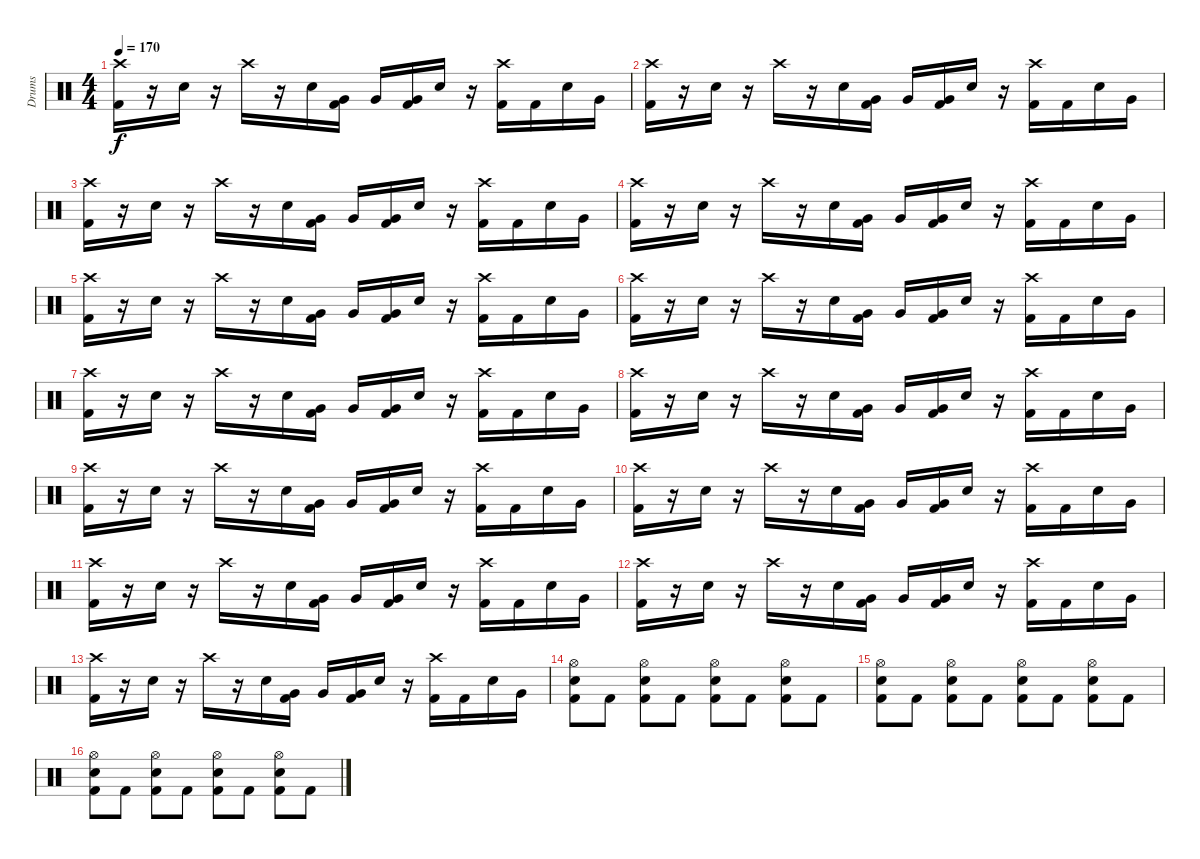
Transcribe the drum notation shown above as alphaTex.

\track ("Drums" "Drums") {instrument percussion}
\staff {score}
\articulation defaults
\ts (4 4)
\tempo 170
\clef neutral
\ks c
("Crash high (hit)" "Kick (hit) 2").16{dy f} r.16 "Electric Snare (hit)".16 r.16 "Crash high (hit)".16 r.16 "Electric Snare (hit)".16 ("Very Low Tom (hit)" "Kick (hit) 2").16 "Very Low Tom (hit)".16 ("Very Low Tom (hit)" "Kick (hit) 2").16 "Electric Snare (hit)".16 r.16 ("Crash high (hit)" "Kick (hit) 2").16 "Kick (hit) 2".16 "Electric Snare (hit)".16 "Very Low Tom (hit)".16 |
("Crash high (hit)" "Kick (hit) 2").16 r.16 "Electric Snare (hit)".16 r.16 "Crash high (hit)".16 r.16 "Electric Snare (hit)".16 ("Very Low Tom (hit)" "Kick (hit) 2").16 "Very Low Tom (hit)".16 ("Very Low Tom (hit)" "Kick (hit) 2").16 "Electric Snare (hit)".16 r.16 ("Crash high (hit)" "Kick (hit) 2").16 "Kick (hit) 2".16 "Electric Snare (hit)".16 "Very Low Tom (hit)".16 |
("Crash high (hit)" "Kick (hit) 2").16 r.16 "Electric Snare (hit)".16 r.16 "Crash high (hit)".16 r.16 "Electric Snare (hit)".16 ("Very Low Tom (hit)" "Kick (hit) 2").16 "Very Low Tom (hit)".16 ("Very Low Tom (hit)" "Kick (hit) 2").16 "Electric Snare (hit)".16 r.16 ("Crash high (hit)" "Kick (hit) 2").16 "Kick (hit) 2".16 "Electric Snare (hit)".16 "Very Low Tom (hit)".16 |
("Crash high (hit)" "Kick (hit) 2").16 r.16 "Electric Snare (hit)".16 r.16 "Crash high (hit)".16 r.16 "Electric Snare (hit)".16 ("Very Low Tom (hit)" "Kick (hit) 2").16 "Very Low Tom (hit)".16 ("Very Low Tom (hit)" "Kick (hit) 2").16 "Electric Snare (hit)".16 r.16 ("Crash high (hit)" "Kick (hit) 2").16 "Kick (hit) 2".16 "Electric Snare (hit)".16 "Very Low Tom (hit)".16 |
("Crash high (hit)" "Kick (hit) 2").16 r.16 "Electric Snare (hit)".16 r.16 "Crash high (hit)".16 r.16 "Electric Snare (hit)".16 ("Very Low Tom (hit)" "Kick (hit) 2").16 "Very Low Tom (hit)".16 ("Very Low Tom (hit)" "Kick (hit) 2").16 "Electric Snare (hit)".16 r.16 ("Crash high (hit)" "Kick (hit) 2").16 "Kick (hit) 2".16 "Electric Snare (hit)".16 "Very Low Tom (hit)".16 |
("Crash high (hit)" "Kick (hit) 2").16 r.16 "Electric Snare (hit)".16 r.16 "Crash high (hit)".16 r.16 "Electric Snare (hit)".16 ("Very Low Tom (hit)" "Kick (hit) 2").16 "Very Low Tom (hit)".16 ("Very Low Tom (hit)" "Kick (hit) 2").16 "Electric Snare (hit)".16 r.16 ("Crash high (hit)" "Kick (hit) 2").16 "Kick (hit) 2".16 "Electric Snare (hit)".16 "Very Low Tom (hit)".16 |
("Crash high (hit)" "Kick (hit) 2").16 r.16 "Electric Snare (hit)".16 r.16 "Crash high (hit)".16 r.16 "Electric Snare (hit)".16 ("Very Low Tom (hit)" "Kick (hit) 2").16 "Very Low Tom (hit)".16 ("Very Low Tom (hit)" "Kick (hit) 2").16 "Electric Snare (hit)".16 r.16 ("Crash high (hit)" "Kick (hit) 2").16 "Kick (hit) 2".16 "Electric Snare (hit)".16 "Very Low Tom (hit)".16 |
("Crash high (hit)" "Kick (hit) 2").16 r.16 "Electric Snare (hit)".16 r.16 "Crash high (hit)".16 r.16 "Electric Snare (hit)".16 ("Very Low Tom (hit)" "Kick (hit) 2").16 "Very Low Tom (hit)".16 ("Very Low Tom (hit)" "Kick (hit) 2").16 "Electric Snare (hit)".16 r.16 ("Crash high (hit)" "Kick (hit) 2").16 "Kick (hit) 2".16 "Electric Snare (hit)".16 "Very Low Tom (hit)".16 |
("Crash high (hit)" "Kick (hit) 2").16 r.16 "Electric Snare (hit)".16 r.16 "Crash high (hit)".16 r.16 "Electric Snare (hit)".16 ("Very Low Tom (hit)" "Kick (hit) 2").16 "Very Low Tom (hit)".16 ("Very Low Tom (hit)" "Kick (hit) 2").16 "Electric Snare (hit)".16 r.16 ("Crash high (hit)" "Kick (hit) 2").16 "Kick (hit) 2".16 "Electric Snare (hit)".16 "Very Low Tom (hit)".16 |
("Crash high (hit)" "Kick (hit) 2").16 r.16 "Electric Snare (hit)".16 r.16 "Crash high (hit)".16 r.16 "Electric Snare (hit)".16 ("Very Low Tom (hit)" "Kick (hit) 2").16 "Very Low Tom (hit)".16 ("Very Low Tom (hit)" "Kick (hit) 2").16 "Electric Snare (hit)".16 r.16 ("Crash high (hit)" "Kick (hit) 2").16 "Kick (hit) 2".16 "Electric Snare (hit)".16 "Very Low Tom (hit)".16 |
("Crash high (hit)" "Kick (hit) 2").16 r.16 "Electric Snare (hit)".16 r.16 "Crash high (hit)".16 r.16 "Electric Snare (hit)".16 ("Very Low Tom (hit)" "Kick (hit) 2").16 "Very Low Tom (hit)".16 ("Very Low Tom (hit)" "Kick (hit) 2").16 "Electric Snare (hit)".16 r.16 ("Crash high (hit)" "Kick (hit) 2").16 "Kick (hit) 2".16 "Electric Snare (hit)".16 "Very Low Tom (hit)".16 |
("Crash high (hit)" "Kick (hit) 2").16 r.16 "Electric Snare (hit)".16 r.16 "Crash high (hit)".16 r.16 "Electric Snare (hit)".16 ("Very Low Tom (hit)" "Kick (hit) 2").16 "Very Low Tom (hit)".16 ("Very Low Tom (hit)" "Kick (hit) 2").16 "Electric Snare (hit)".16 r.16 ("Crash high (hit)" "Kick (hit) 2").16 "Kick (hit) 2".16 "Electric Snare (hit)".16 "Very Low Tom (hit)".16 |
("Crash high (hit)" "Kick (hit) 2").16 r.16 "Electric Snare (hit)".16 r.16 "Crash high (hit)".16 r.16 "Electric Snare (hit)".16 ("Very Low Tom (hit)" "Kick (hit) 2").16 "Very Low Tom (hit)".16 ("Very Low Tom (hit)" "Kick (hit) 2").16 "Electric Snare (hit)".16 r.16 ("Crash high (hit)" "Kick (hit) 2").16 "Kick (hit) 2".16 "Electric Snare (hit)".16 "Very Low Tom (hit)".16 |
("Hi-Hat (open)" "Kick (hit) 2" "Electric Snare (hit)").8 "Kick (hit) 2".8 ("Hi-Hat (open)" "Kick (hit) 2" "Electric Snare (hit)").8 "Kick (hit) 2".8 ("Hi-Hat (open)" "Kick (hit) 2" "Electric Snare (hit)").8 "Kick (hit) 2".8 ("Hi-Hat (open)" "Kick (hit) 2" "Electric Snare (hit)").8 "Kick (hit) 2".8 |
("Hi-Hat (open)" "Kick (hit) 2" "Electric Snare (hit)").8 "Kick (hit) 2".8 ("Hi-Hat (open)" "Kick (hit) 2" "Electric Snare (hit)").8 "Kick (hit) 2".8 ("Hi-Hat (open)" "Kick (hit) 2" "Electric Snare (hit)").8 "Kick (hit) 2".8 ("Hi-Hat (open)" "Kick (hit) 2" "Electric Snare (hit)").8 "Kick (hit) 2".8 |
("Hi-Hat (open)" "Kick (hit) 2" "Electric Snare (hit)").8 "Kick (hit) 2".8 ("Hi-Hat (open)" "Kick (hit) 2" "Electric Snare (hit)").8 "Kick (hit) 2".8 ("Hi-Hat (open)" "Kick (hit) 2" "Electric Snare (hit)").8 "Kick (hit) 2".8 ("Hi-Hat (open)" "Kick (hit) 2" "Electric Snare (hit)").8 "Kick (hit) 2".8
